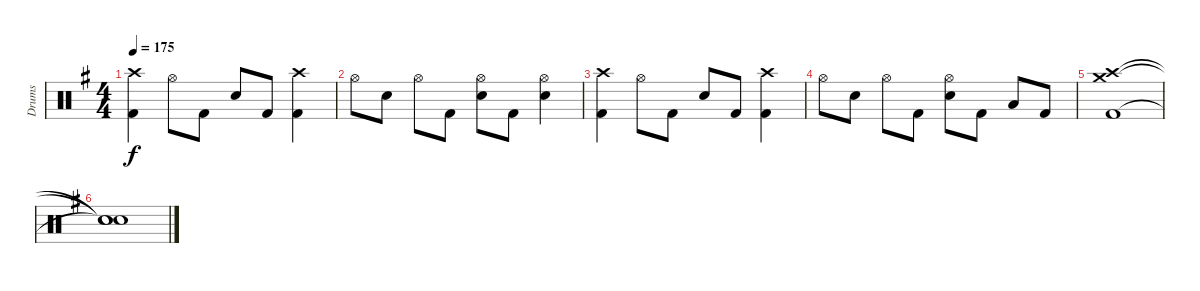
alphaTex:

\track ("Drums" "Drums") {instrument percussion}
\staff {score}
\articulation defaults
\ts (4 4)
\tempo 175
\clef neutral
\ks g
("Crash high (hit)" "Kick (hit) 2").4{dy f} "Hi-Hat (open)".8 "Kick (hit) 2".8 "Electric Snare (hit)".8 "Kick (hit) 2".8 ("Crash high (hit)" "Kick (hit) 2").4 |
"Hi-Hat (open)".8 "Electric Snare (hit)".8 "Hi-Hat (open)".8 "Kick (hit) 2".8 ("Hi-Hat (open)" "Electric Snare (hit)").8 "Kick (hit) 2".8 ("Hi-Hat (open)" "Electric Snare (hit)").4 |
("Crash high (hit)" "Kick (hit) 2").4 "Hi-Hat (open)".8 "Kick (hit) 2".8 "Electric Snare (hit)".8 "Kick (hit) 2".8 ("Crash high (hit)" "Kick (hit) 2").4 |
"Hi-Hat (open)".8 "Electric Snare (hit)".8 "Hi-Hat (open)".8 "Kick (hit) 2".8 ("Hi-Hat (open)" "Electric Snare (hit)").8 "Kick (hit) 2".8 "Low Tom (hit)".8 "Kick (hit) 2".8 |
("Crash high (hit)" "Crash medium (hit)" "Kick (hit) 2").1 |
("Snare (hit)"{t} "Snare (hit)"{t} "Snare (hit)"{t}).1
